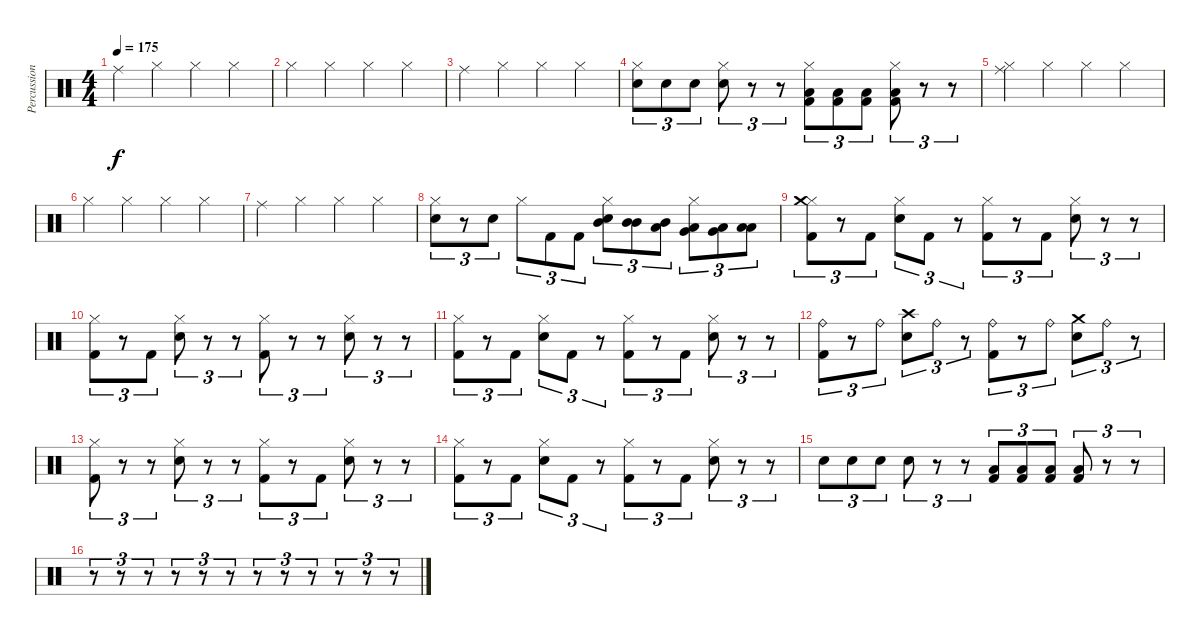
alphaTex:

\track ("Percussion" "Percussion") {instrument percussion}
\staff {score}
\articulation defaults
\ts (4 4)
\tempo 175
\clef neutral
\ks c "Ride (middle)".4{dy f} "Hi-Hat (closed)".4 "Hi-Hat (closed)".4 "Hi-Hat (closed)".4
|
"Hi-Hat (closed)".4 "Hi-Hat (closed)".4 "Hi-Hat (closed)".4 "Hi-Hat (closed)".4 |
"Ride (middle)".4 "Hi-Hat (closed)".4 "Hi-Hat (closed)".4 "Hi-Hat (closed)".4 |
("Hi-Hat (closed)" "Electric Snare (hit)").8{tu (3 2)} "Electric Snare (hit)".8{tu (3 2)} "Electric Snare (hit)".8{tu (3 2)} ("Hi-Hat (closed)" "Electric Snare (hit)").8{tu (3 2)} r.8{tu (3 2)} r.8{tu (3 2)} ("Hi-Hat (closed)" "Kick (hit) 2" "Low Tom (hit)").8{tu (3 2)} ("Kick (hit) 2" "Low Tom (hit)").8{tu (3 2)} ("Kick (hit) 2" "Low Tom (hit)").8{tu (3 2)} ("Hi-Hat (closed)" "Kick (hit) 2" "Low Tom (hit)").8{tu (3 2)} r.8{tu (3 2)} r.8{tu (3 2)} |
("Hi-Hat (closed)" "Ride (middle)").4 "Hi-Hat (closed)".4 "Hi-Hat (closed)".4 "Hi-Hat (closed)".4 |
"Hi-Hat (closed)".4 "Hi-Hat (closed)".4 "Hi-Hat (closed)".4 "Hi-Hat (closed)".4 |
"Ride (middle)".4 "Hi-Hat (closed)".4 "Hi-Hat (closed)".4 "Hi-Hat (closed)".4 |
("Hi-Hat (closed)" "Electric Snare (hit)").8{tu (3 2)} r.8{tu (3 2)} "Electric Snare (hit)".8{tu (3 2)} "Hi-Hat (closed)".8{tu (3 2)} "Kick (hit) 2".8{tu (3 2)} "Kick (hit) 2".8{tu (3 2)} ("Hi-Hat (closed)" "Electric Snare (hit)" "Mid Tom (hit)").8{tu (3 2)} ("Mid Tom (hit)" "Mid Tom (hit)").8{tu (3 2)} ("Mid Tom (hit)" "Low Tom (hit)").8{tu (3 2)} ("Hi-Hat (closed)" "Low Tom (hit)" "Very Low Tom (hit)").8{tu (3 2)} ("Very Low Tom (hit)" "Low Floor Tom (hit)").8{tu (3 2)} ("Low Floor Tom (hit)" "Low Floor Tom (hit)").8{tu (3 2)} |
("Hi-Hat (closed)" "Crash medium (hit)" "Kick (hit) 2").8{tu (3 2)} r.8{tu (3 2)} "Kick (hit) 2".8{tu (3 2)} ("Hi-Hat (closed)" "Electric Snare (hit)").8{tu (3 2)} "Kick (hit) 2".8{tu (3 2)} r.8{tu (3 2)} ("Hi-Hat (closed)" "Kick (hit) 2").8{tu (3 2)} r.8{tu (3 2)} "Kick (hit) 2".8{tu (3 2)} ("Hi-Hat (closed)" "Electric Snare (hit)").8{tu (3 2)} r.8{tu (3 2)} r.8{tu (3 2)} |
("Hi-Hat (closed)" "Kick (hit) 2").8{tu (3 2)} r.8{tu (3 2)} "Kick (hit) 2".8{tu (3 2)} ("Hi-Hat (closed)" "Electric Snare (hit)").8{tu (3 2)} r.8{tu (3 2)} r.8{tu (3 2)} ("Hi-Hat (closed)" "Kick (hit) 2").8{tu (3 2)} r.8{tu (3 2)} r.8{tu (3 2)} ("Hi-Hat (closed)" "Electric Snare (hit)").8{tu (3 2)} r.8{tu (3 2)} r.8{tu (3 2)} |
("Hi-Hat (closed)" "Kick (hit) 2").8{tu (3 2)} r.8{tu (3 2)} "Kick (hit) 2".8{tu (3 2)} ("Hi-Hat (closed)" "Electric Snare (hit)").8{tu (3 2)} "Kick (hit) 2".8{tu (3 2)} r.8{tu (3 2)} ("Hi-Hat (closed)" "Kick (hit) 2").8{tu (3 2)} r.8{tu (3 2)} "Kick (hit) 2".8{tu (3 2)} ("Hi-Hat (closed)" "Electric Snare (hit)").8{tu (3 2)} r.8{tu (3 2)} r.8{tu (3 2)} |
("Kick (hit) 2" "Ride (bell)").8{tu (3 2)} r.8{tu (3 2)} "Ride (bell)".8{tu (3 2)} ("Crash high (hit)" "Electric Snare (hit)").8{tu (3 2)} "Ride (bell)".8{tu (3 2)} r.8{tu (3 2)} ("Kick (hit) 2" "Ride (bell)").8{tu (3 2)} r.8{tu (3 2)} "Ride (bell)".8{tu (3 2)} ("Crash medium (hit)" "Electric Snare (hit)").8{tu (3 2)} "Ride (bell)".8{tu (3 2)} r.8{tu (3 2)} |
("Hi-Hat (closed)" "Kick (hit) 2").8{tu (3 2)} r.8{tu (3 2)} r.8{tu (3 2)} ("Hi-Hat (closed)" "Electric Snare (hit)").8{tu (3 2)} r.8{tu (3 2)} r.8{tu (3 2)} ("Hi-Hat (closed)" "Kick (hit) 2").8{tu (3 2)} r.8{tu (3 2)} "Kick (hit) 2".8{tu (3 2)} ("Hi-Hat (closed)" "Electric Snare (hit)").8{tu (3 2)} r.8{tu (3 2)} r.8{tu (3 2)} |
("Hi-Hat (closed)" "Kick (hit) 2").8{tu (3 2)} r.8{tu (3 2)} "Kick (hit) 2".8{tu (3 2)} ("Hi-Hat (closed)" "Electric Snare (hit)").8{tu (3 2)} "Kick (hit) 2".8{tu (3 2)} r.8{tu (3 2)} ("Hi-Hat (closed)" "Kick (hit) 2").8{tu (3 2)} r.8{tu (3 2)} "Kick (hit) 2".8{tu (3 2)} ("Hi-Hat (closed)" "Electric Snare (hit)").8{tu (3 2)} r.8{tu (3 2)} r.8{tu (3 2)} |
"Electric Snare (hit)".8{tu (3 2)} "Electric Snare (hit)".8{tu (3 2)} "Electric Snare (hit)".8{tu (3 2)} "Electric Snare (hit)".8{tu (3 2)} r.8{tu (3 2)} r.8{tu (3 2)} ("Kick (hit) 2" "Low Floor Tom (hit)").8{tu (3 2)} ("Kick (hit) 2" "Low Floor Tom (hit)").8{tu (3 2)} ("Kick (hit) 2" "Low Floor Tom (hit)").8{tu (3 2)} ("Kick (hit) 2" "Low Floor Tom (hit)").8{tu (3 2)} r.8{tu (3 2)} r.8{tu (3 2)} |
r.8{tu (3 2)} r.8{tu (3 2)} r.8{tu (3 2)} r.8{tu (3 2)} r.8{tu (3 2)} r.8{tu (3 2)} r.8{tu (3 2)} r.8{tu (3 2)} r.8{tu (3 2)} r.8{tu (3 2)} r.8{tu (3 2)} r.8{tu (3 2)}
